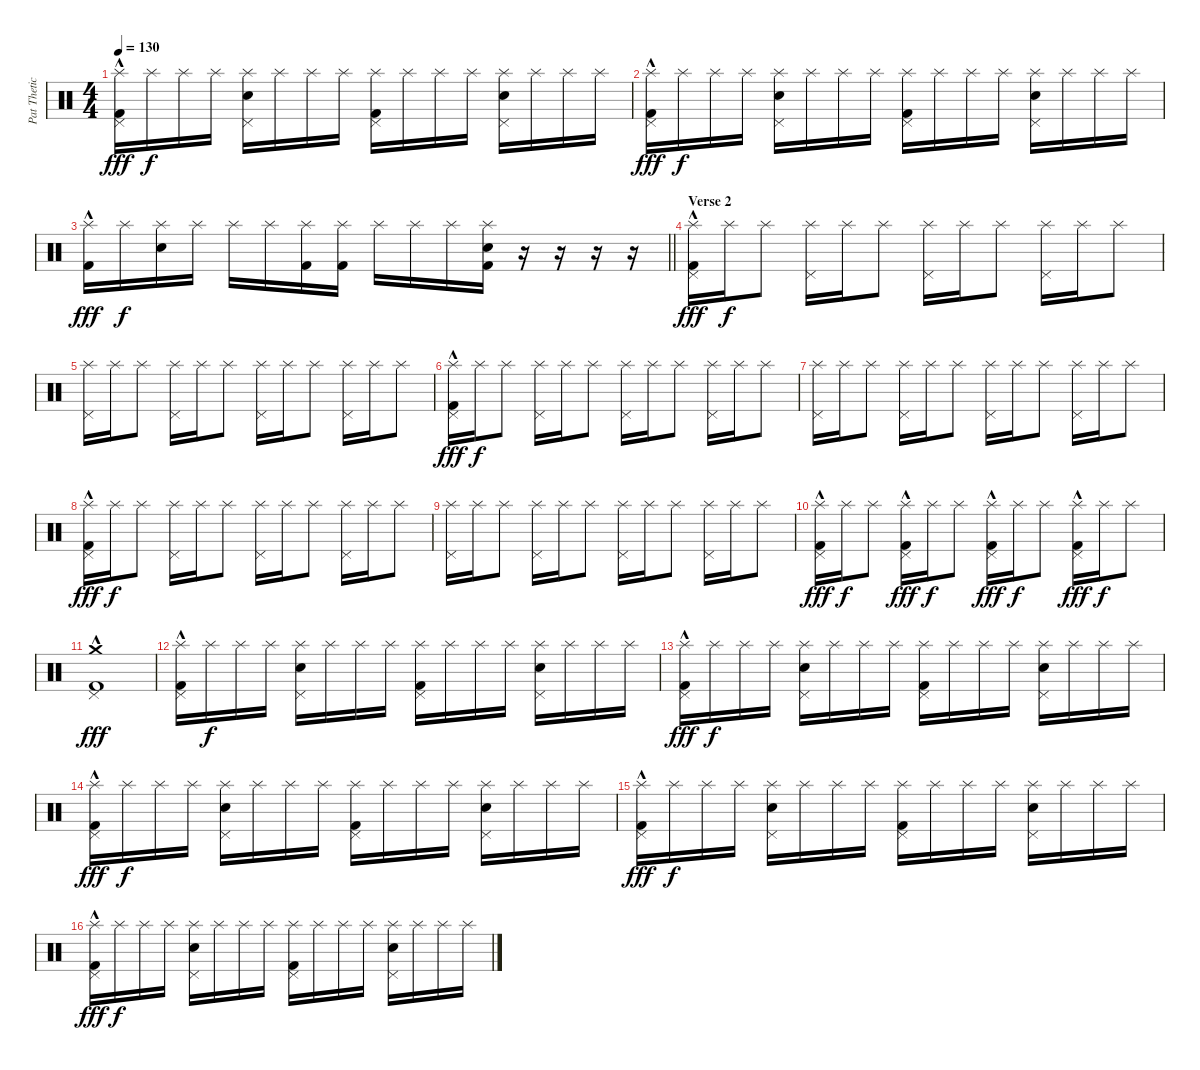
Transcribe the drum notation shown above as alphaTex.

\track ("Pat Thetic Drums" "Pat Thetic") {instrument percussion}
\staff {score}
\articulation defaults
\ts (4 4)
\tempo 130
\clef neutral
\ks c
("Splash (hit)" "Pedal Hi-Hat (hit)" "Kick (hit) 2"{hac}).16{dy fff} "Splash (hit)".16{dy f} "Splash (hit)".16 "Splash (hit)".16 ("Splash (hit)" "Pedal Hi-Hat (hit)" "Snare (hit) 2").16 "Splash (hit)".16 "Splash (hit)".16 "Splash (hit)".16 ("Splash (hit)" "Pedal Hi-Hat (hit)" "Kick (hit) 2").16 "Splash (hit)".16 "Splash (hit)".16 "Splash (hit)".16 ("Splash (hit)" "Pedal Hi-Hat (hit)" "Snare (hit) 2").16 "Splash (hit)".16 "Splash (hit)".16 "Splash (hit)".16 |
("Splash (hit)" "Pedal Hi-Hat (hit)" "Kick (hit) 2"{hac}).16{dy fff} "Splash (hit)".16{dy f} "Splash (hit)".16 "Splash (hit)".16 ("Splash (hit)" "Pedal Hi-Hat (hit)" "Snare (hit) 2").16 "Splash (hit)".16 "Splash (hit)".16 "Splash (hit)".16 ("Splash (hit)" "Pedal Hi-Hat (hit)" "Kick (hit) 2").16 "Splash (hit)".16 "Splash (hit)".16 "Splash (hit)".16 ("Splash (hit)" "Pedal Hi-Hat (hit)" "Snare (hit) 2").16 "Splash (hit)".16 "Splash (hit)".16 "Splash (hit)".16 |
\barLineRight lightlight
("Splash (hit)" "Kick (hit) 2"{hac}).16{dy fff} "Splash (hit)".16{dy f} ("Splash (hit)" "Snare (hit) 2").16 "Splash (hit)".16 "Splash (hit)".16 "Splash (hit)".16 ("Splash (hit)" "Kick (hit) 2").16 ("Splash (hit)" "Kick (hit) 2").16 "Splash (hit)".16 "Splash (hit)".16 "Splash (hit)".16 ("Splash (hit)" "Kick (hit) 2" "Snare (hit) 2").16 r.16 r.16 r.16 r.16 |
\section ("" "Verse 2")
("Splash (hit)" "Pedal Hi-Hat (hit)" "Kick (hit) 2"{hac}).16{dy fff} "Splash (hit)".16{dy f} "Splash (hit)".8 ("Splash (hit)" "Pedal Hi-Hat (hit)").16 "Splash (hit)".16 "Splash (hit)".8 ("Splash (hit)" "Pedal Hi-Hat (hit)").16 "Splash (hit)".16 "Splash (hit)".8 ("Splash (hit)" "Pedal Hi-Hat (hit)").16 "Splash (hit)".16 "Splash (hit)".8 |
("Splash (hit)" "Pedal Hi-Hat (hit)").16 "Splash (hit)".16 "Splash (hit)".8 ("Splash (hit)" "Pedal Hi-Hat (hit)").16 "Splash (hit)".16 "Splash (hit)".8 ("Splash (hit)" "Pedal Hi-Hat (hit)").16 "Splash (hit)".16 "Splash (hit)".8 ("Splash (hit)" "Pedal Hi-Hat (hit)").16 "Splash (hit)".16 "Splash (hit)".8 |
("Splash (hit)" "Pedal Hi-Hat (hit)" "Kick (hit) 2"{hac}).16{dy fff} "Splash (hit)".16{dy f} "Splash (hit)".8 ("Splash (hit)" "Pedal Hi-Hat (hit)").16 "Splash (hit)".16 "Splash (hit)".8 ("Splash (hit)" "Pedal Hi-Hat (hit)").16 "Splash (hit)".16 "Splash (hit)".8 ("Splash (hit)" "Pedal Hi-Hat (hit)").16 "Splash (hit)".16 "Splash (hit)".8 |
("Splash (hit)" "Pedal Hi-Hat (hit)").16 "Splash (hit)".16 "Splash (hit)".8 ("Splash (hit)" "Pedal Hi-Hat (hit)").16 "Splash (hit)".16 "Splash (hit)".8 ("Splash (hit)" "Pedal Hi-Hat (hit)").16 "Splash (hit)".16 "Splash (hit)".8 ("Splash (hit)" "Pedal Hi-Hat (hit)").16 "Splash (hit)".16 "Splash (hit)".8 |
("Splash (hit)" "Pedal Hi-Hat (hit)" "Kick (hit) 2"{hac}).16{dy fff} "Splash (hit)".16{dy f} "Splash (hit)".8 ("Splash (hit)" "Pedal Hi-Hat (hit)").16 "Splash (hit)".16 "Splash (hit)".8 ("Splash (hit)" "Pedal Hi-Hat (hit)").16 "Splash (hit)".16 "Splash (hit)".8 ("Splash (hit)" "Pedal Hi-Hat (hit)").16 "Splash (hit)".16 "Splash (hit)".8 |
("Splash (hit)" "Pedal Hi-Hat (hit)").16 "Splash (hit)".16 "Splash (hit)".8 ("Splash (hit)" "Pedal Hi-Hat (hit)").16 "Splash (hit)".16 "Splash (hit)".8 ("Splash (hit)" "Pedal Hi-Hat (hit)").16 "Splash (hit)".16 "Splash (hit)".8 ("Splash (hit)" "Pedal Hi-Hat (hit)").16 "Splash (hit)".16 "Splash (hit)".8 |
("Splash (hit)" "Pedal Hi-Hat (hit)" "Kick (hit) 2"{hac}).16{dy fff} "Splash (hit)".16{dy f} "Splash (hit)".8 ("Splash (hit)" "Pedal Hi-Hat (hit)" "Kick (hit) 2"{hac}).16{dy fff} "Splash (hit)".16{dy f} "Splash (hit)".8 ("Splash (hit)" "Pedal Hi-Hat (hit)" "Kick (hit) 2"{hac}).16{dy fff} "Splash (hit)".16{dy f} "Splash (hit)".8 ("Splash (hit)" "Pedal Hi-Hat (hit)" "Kick (hit) 2"{hac}).16{dy fff} "Splash (hit)".16{dy f} "Splash (hit)".8 |
("Pedal Hi-Hat (hit)" "Crash medium (hit)" "Kick (hit) 2"{hac}).1{dy fff} |
("Splash (hit)" "Pedal Hi-Hat (hit)" "Kick (hit) 2"{hac}).16 "Splash (hit)".16{dy f} "Splash (hit)".16 "Splash (hit)".16 ("Splash (hit)" "Pedal Hi-Hat (hit)" "Snare (hit) 2").16 "Splash (hit)".16 "Splash (hit)".16 "Splash (hit)".16 ("Splash (hit)" "Pedal Hi-Hat (hit)" "Kick (hit) 2").16 "Splash (hit)".16 "Splash (hit)".16 "Splash (hit)".16 ("Splash (hit)" "Pedal Hi-Hat (hit)" "Snare (hit) 2").16 "Splash (hit)".16 "Splash (hit)".16 "Splash (hit)".16 |
("Splash (hit)" "Pedal Hi-Hat (hit)" "Kick (hit) 2"{hac}).16{dy fff} "Splash (hit)".16{dy f} "Splash (hit)".16 "Splash (hit)".16 ("Splash (hit)" "Pedal Hi-Hat (hit)" "Snare (hit) 2").16 "Splash (hit)".16 "Splash (hit)".16 "Splash (hit)".16 ("Splash (hit)" "Pedal Hi-Hat (hit)" "Kick (hit) 2").16 "Splash (hit)".16 "Splash (hit)".16 "Splash (hit)".16 ("Splash (hit)" "Pedal Hi-Hat (hit)" "Snare (hit) 2").16 "Splash (hit)".16 "Splash (hit)".16 "Splash (hit)".16 |
("Splash (hit)" "Pedal Hi-Hat (hit)" "Kick (hit) 2"{hac}).16{dy fff} "Splash (hit)".16{dy f} "Splash (hit)".16 "Splash (hit)".16 ("Splash (hit)" "Pedal Hi-Hat (hit)" "Snare (hit) 2").16 "Splash (hit)".16 "Splash (hit)".16 "Splash (hit)".16 ("Splash (hit)" "Pedal Hi-Hat (hit)" "Kick (hit) 2").16 "Splash (hit)".16 "Splash (hit)".16 "Splash (hit)".16 ("Splash (hit)" "Pedal Hi-Hat (hit)" "Snare (hit) 2").16 "Splash (hit)".16 "Splash (hit)".16 "Splash (hit)".16 |
("Splash (hit)" "Pedal Hi-Hat (hit)" "Kick (hit) 2"{hac}).16{dy fff} "Splash (hit)".16{dy f} "Splash (hit)".16 "Splash (hit)".16 ("Splash (hit)" "Pedal Hi-Hat (hit)" "Snare (hit) 2").16 "Splash (hit)".16 "Splash (hit)".16 "Splash (hit)".16 ("Splash (hit)" "Pedal Hi-Hat (hit)" "Kick (hit) 2").16 "Splash (hit)".16 "Splash (hit)".16 "Splash (hit)".16 ("Splash (hit)" "Pedal Hi-Hat (hit)" "Snare (hit) 2").16 "Splash (hit)".16 "Splash (hit)".16 "Splash (hit)".16 |
("Splash (hit)" "Pedal Hi-Hat (hit)" "Kick (hit) 2"{hac}).16{dy fff} "Splash (hit)".16{dy f} "Splash (hit)".16 "Splash (hit)".16 ("Splash (hit)" "Pedal Hi-Hat (hit)" "Snare (hit) 2").16 "Splash (hit)".16 "Splash (hit)".16 "Splash (hit)".16 ("Splash (hit)" "Pedal Hi-Hat (hit)" "Kick (hit) 2").16 "Splash (hit)".16 "Splash (hit)".16 "Splash (hit)".16 ("Splash (hit)" "Pedal Hi-Hat (hit)" "Snare (hit) 2").16 "Splash (hit)".16 "Splash (hit)".16 "Splash (hit)".16
